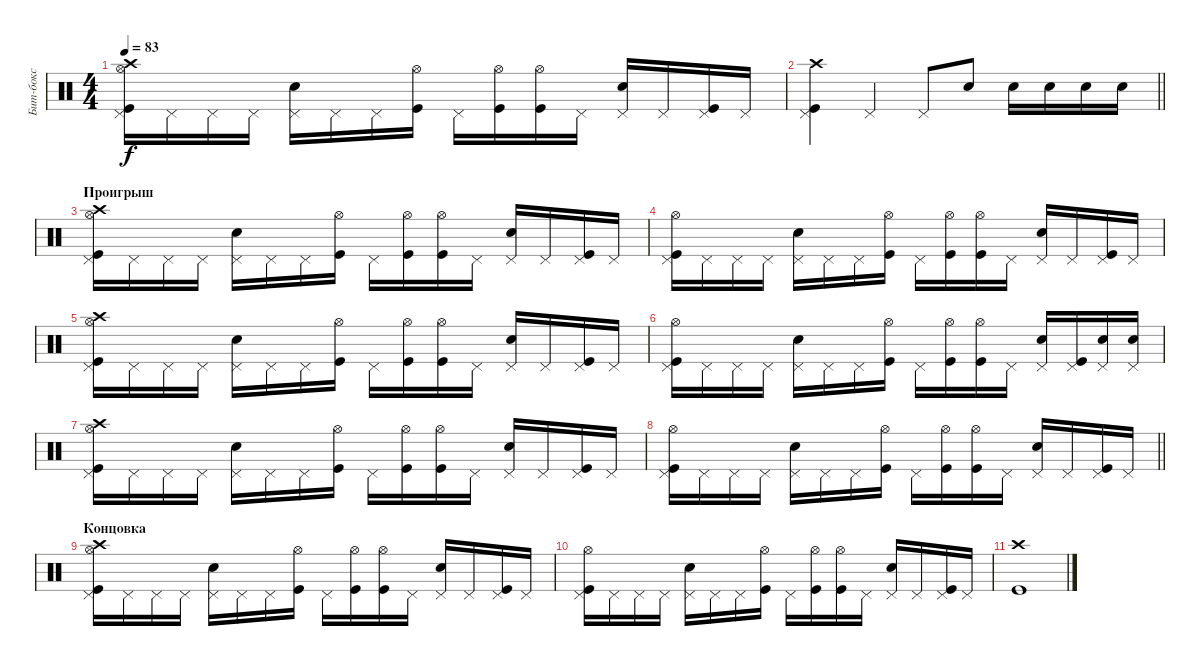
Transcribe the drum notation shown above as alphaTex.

\track ("Бит-бокс" "Бит-бокс") {instrument percussion}
\staff {score}
\articulation defaults
\ts (4 4)
\tempo 83
\clef neutral
\ks c
("Kick (hit)" "Pedal Hi-Hat (hit)" "Crash high (hit)" "Hi-Hat (open)").16{dy f} "Pedal Hi-Hat (hit)".16 "Pedal Hi-Hat (hit)".16 "Pedal Hi-Hat (hit)".16 ("Pedal Hi-Hat (hit)" "Snare (hit) 2").16 "Pedal Hi-Hat (hit)".16 "Pedal Hi-Hat (hit)".16 ("Kick (hit)" "Hi-Hat (open)").16 "Pedal Hi-Hat (hit)".16 ("Kick (hit)" "Hi-Hat (open)").16 ("Kick (hit)" "Hi-Hat (open)").16 "Pedal Hi-Hat (hit)".16 ("Pedal Hi-Hat (hit)" "Snare (hit) 2").16 "Pedal Hi-Hat (hit)".16 ("Kick (hit)" "Pedal Hi-Hat (hit)").16 "Pedal Hi-Hat (hit)".16 |
\barLineRight lightlight
("Kick (hit)" "Pedal Hi-Hat (hit)" "Crash high (hit)").4 "Pedal Hi-Hat (hit)".4 "Pedal Hi-Hat (hit)".8 "Snare (hit) 2".8 "Snare (hit) 2".16 "Snare (hit) 2".16 "Snare (hit) 2".16 "Snare (hit) 2".16 |
\section ("" "Проигрыш")
("Kick (hit)" "Pedal Hi-Hat (hit)" "Crash high (hit)" "Hi-Hat (open)").16 "Pedal Hi-Hat (hit)".16 "Pedal Hi-Hat (hit)".16 "Pedal Hi-Hat (hit)".16 ("Pedal Hi-Hat (hit)" "Snare (hit) 2").16 "Pedal Hi-Hat (hit)".16 "Pedal Hi-Hat (hit)".16 ("Kick (hit)" "Hi-Hat (open)").16 "Pedal Hi-Hat (hit)".16 ("Kick (hit)" "Hi-Hat (open)").16 ("Kick (hit)" "Hi-Hat (open)").16 "Pedal Hi-Hat (hit)".16 ("Pedal Hi-Hat (hit)" "Snare (hit) 2").16 "Pedal Hi-Hat (hit)".16 ("Kick (hit)" "Pedal Hi-Hat (hit)").16 "Pedal Hi-Hat (hit)".16 |
("Kick (hit)" "Pedal Hi-Hat (hit)" "Hi-Hat (open)").16 "Pedal Hi-Hat (hit)".16 "Pedal Hi-Hat (hit)".16 "Pedal Hi-Hat (hit)".16 ("Pedal Hi-Hat (hit)" "Snare (hit) 2").16 "Pedal Hi-Hat (hit)".16 "Pedal Hi-Hat (hit)".16 ("Kick (hit)" "Hi-Hat (open)").16 "Pedal Hi-Hat (hit)".16 ("Kick (hit)" "Hi-Hat (open)").16 ("Kick (hit)" "Hi-Hat (open)").16 "Pedal Hi-Hat (hit)".16 ("Pedal Hi-Hat (hit)" "Snare (hit) 2").16 "Pedal Hi-Hat (hit)".16 ("Kick (hit)" "Pedal Hi-Hat (hit)").16 "Pedal Hi-Hat (hit)".16 |
("Kick (hit)" "Pedal Hi-Hat (hit)" "Crash high (hit)" "Hi-Hat (open)").16 "Pedal Hi-Hat (hit)".16 "Pedal Hi-Hat (hit)".16 "Pedal Hi-Hat (hit)".16 ("Pedal Hi-Hat (hit)" "Snare (hit) 2").16 "Pedal Hi-Hat (hit)".16 "Pedal Hi-Hat (hit)".16 ("Kick (hit)" "Hi-Hat (open)").16 "Pedal Hi-Hat (hit)".16 ("Kick (hit)" "Hi-Hat (open)").16 ("Kick (hit)" "Hi-Hat (open)").16 "Pedal Hi-Hat (hit)".16 ("Pedal Hi-Hat (hit)" "Snare (hit) 2").16 "Pedal Hi-Hat (hit)".16 ("Kick (hit)" "Pedal Hi-Hat (hit)").16 "Pedal Hi-Hat (hit)".16 |
("Kick (hit)" "Pedal Hi-Hat (hit)" "Hi-Hat (open)").16 "Pedal Hi-Hat (hit)".16 "Pedal Hi-Hat (hit)".16 "Pedal Hi-Hat (hit)".16 ("Pedal Hi-Hat (hit)" "Snare (hit) 2").16 "Pedal Hi-Hat (hit)".16 "Pedal Hi-Hat (hit)".16 ("Kick (hit)" "Hi-Hat (open)").16 "Pedal Hi-Hat (hit)".16 ("Kick (hit)" "Hi-Hat (open)").16 ("Kick (hit)" "Hi-Hat (open)").16 "Pedal Hi-Hat (hit)".16 ("Pedal Hi-Hat (hit)" "Snare (hit) 2").16 ("Kick (hit)" "Pedal Hi-Hat (hit)").16 ("Pedal Hi-Hat (hit)" "Snare (hit) 2").16 ("Pedal Hi-Hat (hit)" "Snare (hit) 2").16 |
("Kick (hit)" "Pedal Hi-Hat (hit)" "Crash high (hit)" "Hi-Hat (open)").16 "Pedal Hi-Hat (hit)".16 "Pedal Hi-Hat (hit)".16 "Pedal Hi-Hat (hit)".16 ("Pedal Hi-Hat (hit)" "Snare (hit) 2").16 "Pedal Hi-Hat (hit)".16 "Pedal Hi-Hat (hit)".16 ("Kick (hit)" "Hi-Hat (open)").16 "Pedal Hi-Hat (hit)".16 ("Kick (hit)" "Hi-Hat (open)").16 ("Kick (hit)" "Hi-Hat (open)").16 "Pedal Hi-Hat (hit)".16 ("Pedal Hi-Hat (hit)" "Snare (hit) 2").16 "Pedal Hi-Hat (hit)".16 ("Kick (hit)" "Pedal Hi-Hat (hit)").16 "Pedal Hi-Hat (hit)".16 |
\barLineRight lightlight
("Kick (hit)" "Pedal Hi-Hat (hit)" "Hi-Hat (open)").16 "Pedal Hi-Hat (hit)".16 "Pedal Hi-Hat (hit)".16 "Pedal Hi-Hat (hit)".16 ("Pedal Hi-Hat (hit)" "Snare (hit) 2").16 "Pedal Hi-Hat (hit)".16 "Pedal Hi-Hat (hit)".16 ("Kick (hit)" "Hi-Hat (open)").16 "Pedal Hi-Hat (hit)".16 ("Kick (hit)" "Hi-Hat (open)").16 ("Kick (hit)" "Hi-Hat (open)").16 "Pedal Hi-Hat (hit)".16 ("Pedal Hi-Hat (hit)" "Snare (hit) 2").16 "Pedal Hi-Hat (hit)".16 ("Kick (hit)" "Pedal Hi-Hat (hit)").16 "Pedal Hi-Hat (hit)".16 |
\section ("" "Концовка")
("Kick (hit)" "Pedal Hi-Hat (hit)" "Crash high (hit)" "Hi-Hat (open)").16 "Pedal Hi-Hat (hit)".16 "Pedal Hi-Hat (hit)".16 "Pedal Hi-Hat (hit)".16 ("Pedal Hi-Hat (hit)" "Snare (hit) 2").16 "Pedal Hi-Hat (hit)".16 "Pedal Hi-Hat (hit)".16 ("Kick (hit)" "Hi-Hat (open)").16 "Pedal Hi-Hat (hit)".16 ("Kick (hit)" "Hi-Hat (open)").16 ("Kick (hit)" "Hi-Hat (open)").16 "Pedal Hi-Hat (hit)".16 ("Pedal Hi-Hat (hit)" "Snare (hit) 2").16 "Pedal Hi-Hat (hit)".16 ("Kick (hit)" "Pedal Hi-Hat (hit)").16 "Pedal Hi-Hat (hit)".16 |
("Kick (hit)" "Pedal Hi-Hat (hit)" "Hi-Hat (open)").16 "Pedal Hi-Hat (hit)".16 "Pedal Hi-Hat (hit)".16 "Pedal Hi-Hat (hit)".16 ("Pedal Hi-Hat (hit)" "Snare (hit) 2").16 "Pedal Hi-Hat (hit)".16 "Pedal Hi-Hat (hit)".16 ("Kick (hit)" "Hi-Hat (open)").16 "Pedal Hi-Hat (hit)".16 ("Kick (hit)" "Hi-Hat (open)").16 ("Kick (hit)" "Hi-Hat (open)").16 "Pedal Hi-Hat (hit)".16 ("Pedal Hi-Hat (hit)" "Snare (hit) 2").16 "Pedal Hi-Hat (hit)".16 ("Kick (hit)" "Pedal Hi-Hat (hit)").16 "Pedal Hi-Hat (hit)".16 |
("Kick (hit)" "Crash high (hit)").1
